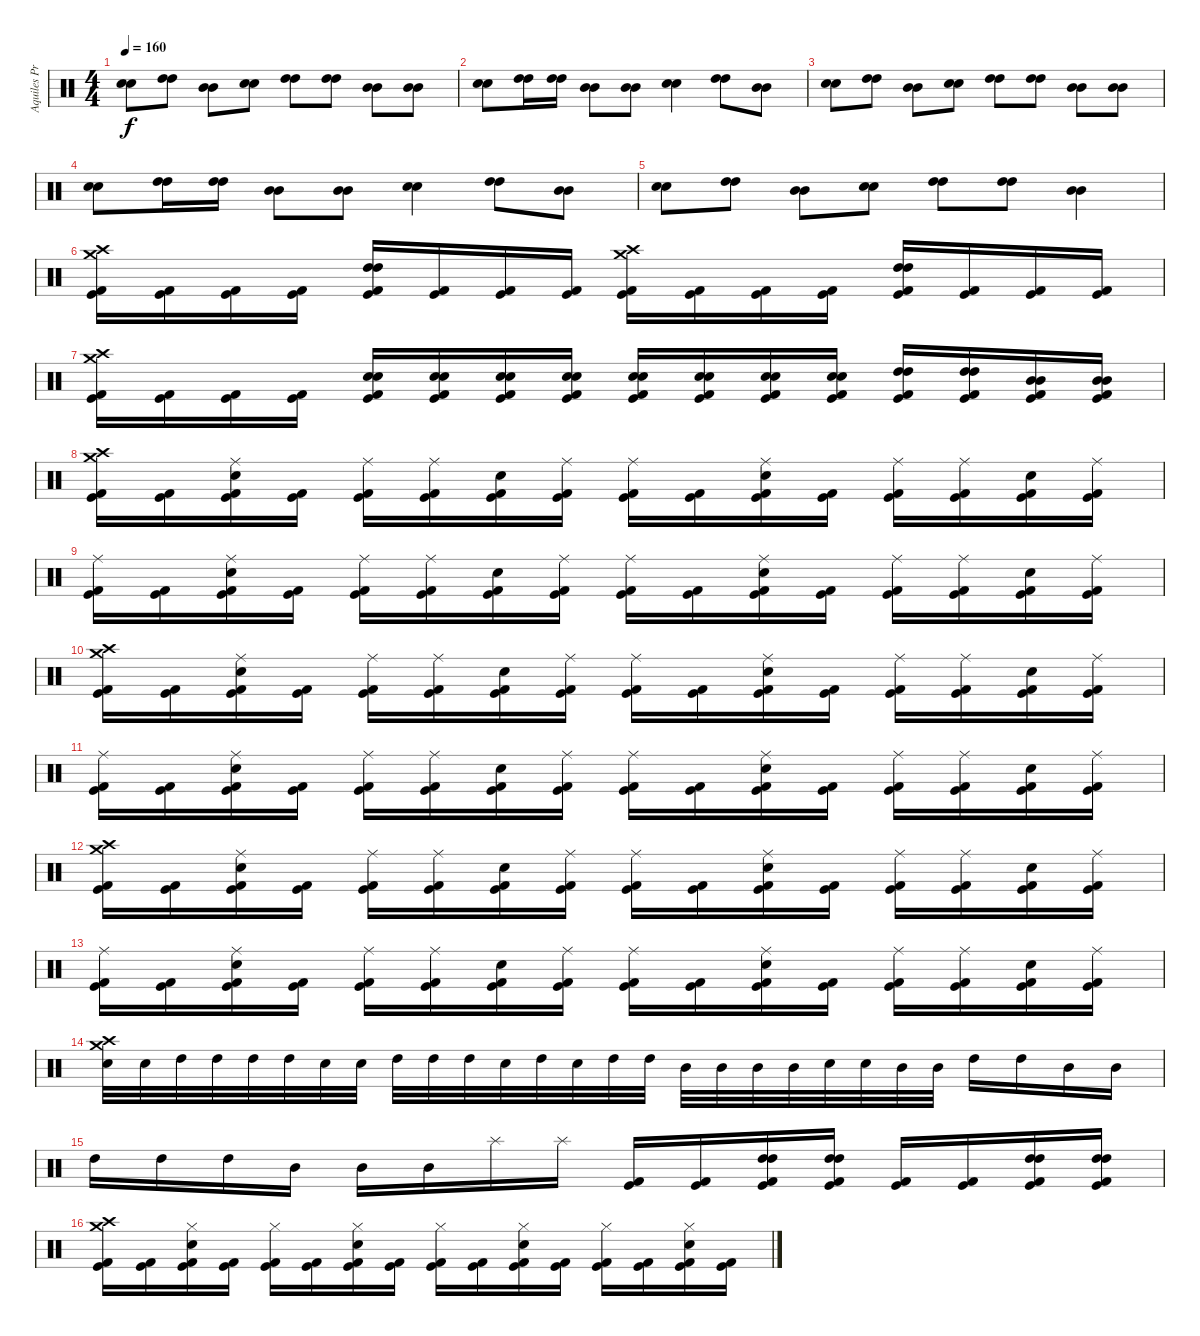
\track ("Aquiles Priester" "Aquiles Pr") {instrument percussion}
\staff {score}
\articulation defaults
\ts (4 4)
\tempo 160
\clef neutral
\ks c
("Electric Snare (hit)" "Electric Snare (hit)").8{dy f} ("High Tom (hit)" "High Tom (hit)").8 ("Mid Tom (hit)" "Mid Tom (hit)").8 ("Electric Snare (hit)" "Electric Snare (hit)").8 ("High Tom (hit)" "High Tom (hit)").8 ("High Tom (hit)" "High Tom (hit)").8 ("Mid Tom (hit)" "Mid Tom (hit)").8 ("Mid Tom (hit)" "Mid Tom (hit)").8 |
("Electric Snare (hit)" "Electric Snare (hit)").8 ("High Tom (hit)" "High Tom (hit)").16 ("High Tom (hit)" "High Tom (hit)").16 ("Mid Tom (hit)" "Mid Tom (hit)").8 ("Mid Tom (hit)" "Mid Tom (hit)").8 ("Electric Snare (hit)" "Electric Snare (hit)").4 ("High Tom (hit)" "High Tom (hit)").8 ("Mid Tom (hit)" "Mid Tom (hit)").8 |
("Electric Snare (hit)" "Electric Snare (hit)").8 ("High Tom (hit)" "High Tom (hit)").8 ("Mid Tom (hit)" "Mid Tom (hit)").8 ("Electric Snare (hit)" "Electric Snare (hit)").8 ("High Tom (hit)" "High Tom (hit)").8 ("High Tom (hit)" "High Tom (hit)").8 ("Mid Tom (hit)" "Mid Tom (hit)").8 ("Mid Tom (hit)" "Mid Tom (hit)").8 |
("Electric Snare (hit)" "Electric Snare (hit)").8 ("High Tom (hit)" "High Tom (hit)").16 ("High Tom (hit)" "High Tom (hit)").16 ("Mid Tom (hit)" "Mid Tom (hit)").8 ("Mid Tom (hit)" "Mid Tom (hit)").8 ("Electric Snare (hit)" "Electric Snare (hit)").4 ("High Tom (hit)" "High Tom (hit)").8 ("Mid Tom (hit)" "Mid Tom (hit)").8 |
("Electric Snare (hit)" "Electric Snare (hit)").8 ("High Tom (hit)" "High Tom (hit)").8 ("Mid Tom (hit)" "Mid Tom (hit)").8 ("Electric Snare (hit)" "Electric Snare (hit)").8 ("High Tom (hit)" "High Tom (hit)").8 ("High Tom (hit)" "High Tom (hit)").8 ("Mid Tom (hit)" "Mid Tom (hit)").4 |
("Crash medium (hit)" "Crash high (hit)" "Kick (hit) 2" "Kick (hit)").16 ("Kick (hit) 2" "Kick (hit)").16 ("Kick (hit) 2" "Kick (hit)").16 ("Kick (hit) 2" "Kick (hit)").16 ("High Tom (hit)" "High Tom (hit)" "Kick (hit) 2" "Kick (hit)").16 ("Kick (hit) 2" "Kick (hit)").16 ("Kick (hit) 2" "Kick (hit)").16 ("Kick (hit) 2" "Kick (hit)").16 ("Crash high (hit)" "Crash medium (hit)" "Kick (hit) 2" "Kick (hit)").16 ("Kick (hit) 2" "Kick (hit)").16 ("Kick (hit) 2" "Kick (hit)").16 ("Kick (hit) 2" "Kick (hit)").16 ("High Tom (hit)" "High Tom (hit)" "Kick (hit) 2" "Kick (hit)").16 ("Kick (hit) 2" "Kick (hit)").16 ("Kick (hit) 2" "Kick (hit)").16 ("Kick (hit) 2" "Kick (hit)").16 |
("Crash medium (hit)" "Crash high (hit)" "Kick (hit) 2" "Kick (hit)").16 ("Kick (hit) 2" "Kick (hit)").16 ("Kick (hit) 2" "Kick (hit)").16 ("Kick (hit) 2" "Kick (hit)").16 ("Electric Snare (hit)" "Electric Snare (hit)" "Kick (hit) 2" "Kick (hit)").16 ("Electric Snare (hit)" "Electric Snare (hit)" "Kick (hit) 2" "Kick (hit)").16 ("Electric Snare (hit)" "Electric Snare (hit)" "Kick (hit) 2" "Kick (hit)").16 ("Electric Snare (hit)" "Electric Snare (hit)" "Kick (hit) 2" "Kick (hit)").16 ("Electric Snare (hit)" "Electric Snare (hit)" "Kick (hit) 2" "Kick (hit)").16 ("Electric Snare (hit)" "Electric Snare (hit)" "Kick (hit) 2" "Kick (hit)").16 ("Electric Snare (hit)" "Electric Snare (hit)" "Kick (hit) 2" "Kick (hit)").16 ("Electric Snare (hit)" "Electric Snare (hit)" "Kick (hit) 2" "Kick (hit)").16 ("High Tom (hit)" "High Tom (hit)" "Kick (hit) 2" "Kick (hit)").16 ("High Tom (hit)" "High Tom (hit)" "Kick (hit) 2" "Kick (hit)").16 ("Mid Tom (hit)" "Mid Tom (hit)" "Kick (hit) 2" "Kick (hit)").16 ("Mid Tom (hit)" "Mid Tom (hit)" "Kick (hit) 2" "Kick (hit)").16 |
("Crash medium (hit)" "Crash high (hit)" "Kick (hit) 2" "Kick (hit)").16 ("Kick (hit) 2" "Kick (hit)").16 ("Ride (middle)" "Electric Snare (hit)" "Kick (hit) 2" "Kick (hit)").16 ("Kick (hit) 2" "Kick (hit)").16 ("Ride (middle)" "Kick (hit) 2" "Kick (hit)").16 ("Ride (middle)" "Kick (hit) 2" "Kick (hit)").16 ("Electric Snare (hit)" "Kick (hit) 2" "Kick (hit)").16 ("Ride (middle)" "Kick (hit) 2" "Kick (hit)").16 ("Ride (middle)" "Kick (hit) 2" "Kick (hit)").16 ("Kick (hit) 2" "Kick (hit)").16 ("Ride (middle)" "Electric Snare (hit)" "Kick (hit) 2" "Kick (hit)").16 ("Kick (hit) 2" "Kick (hit)").16 ("Ride (middle)" "Kick (hit) 2" "Kick (hit)").16 ("Ride (middle)" "Kick (hit) 2" "Kick (hit)").16 ("Electric Snare (hit)" "Kick (hit) 2" "Kick (hit)").16 ("Ride (middle)" "Kick (hit) 2" "Kick (hit)").16 |
("Ride (middle)" "Kick (hit) 2" "Kick (hit)").16 ("Kick (hit) 2" "Kick (hit)").16 ("Ride (middle)" "Electric Snare (hit)" "Kick (hit) 2" "Kick (hit)").16 ("Kick (hit) 2" "Kick (hit)").16 ("Ride (middle)" "Kick (hit) 2" "Kick (hit)").16 ("Ride (middle)" "Kick (hit) 2" "Kick (hit)").16 ("Electric Snare (hit)" "Kick (hit) 2" "Kick (hit)").16 ("Ride (middle)" "Kick (hit) 2" "Kick (hit)").16 ("Ride (middle)" "Kick (hit) 2" "Kick (hit)").16 ("Kick (hit) 2" "Kick (hit)").16 ("Ride (middle)" "Electric Snare (hit)" "Kick (hit) 2" "Kick (hit)").16 ("Kick (hit) 2" "Kick (hit)").16 ("Ride (middle)" "Kick (hit) 2" "Kick (hit)").16 ("Ride (middle)" "Kick (hit) 2" "Kick (hit)").16 ("Electric Snare (hit)" "Kick (hit) 2" "Kick (hit)").16 ("Ride (middle)" "Kick (hit) 2" "Kick (hit)").16 |
("Crash medium (hit)" "Crash high (hit)" "Kick (hit) 2" "Kick (hit)").16 ("Kick (hit) 2" "Kick (hit)").16 ("Ride (middle)" "Electric Snare (hit)" "Kick (hit) 2" "Kick (hit)").16 ("Kick (hit) 2" "Kick (hit)").16 ("Ride (middle)" "Kick (hit) 2" "Kick (hit)").16 ("Ride (middle)" "Kick (hit) 2" "Kick (hit)").16 ("Electric Snare (hit)" "Kick (hit) 2" "Kick (hit)").16 ("Ride (middle)" "Kick (hit) 2" "Kick (hit)").16 ("Ride (middle)" "Kick (hit) 2" "Kick (hit)").16 ("Kick (hit) 2" "Kick (hit)").16 ("Ride (middle)" "Electric Snare (hit)" "Kick (hit) 2" "Kick (hit)").16 ("Kick (hit) 2" "Kick (hit)").16 ("Ride (middle)" "Kick (hit) 2" "Kick (hit)").16 ("Ride (middle)" "Kick (hit) 2" "Kick (hit)").16 ("Electric Snare (hit)" "Kick (hit) 2" "Kick (hit)").16 ("Ride (middle)" "Kick (hit) 2" "Kick (hit)").16 |
("Ride (middle)" "Kick (hit) 2" "Kick (hit)").16 ("Kick (hit) 2" "Kick (hit)").16 ("Ride (middle)" "Electric Snare (hit)" "Kick (hit) 2" "Kick (hit)").16 ("Kick (hit) 2" "Kick (hit)").16 ("Ride (middle)" "Kick (hit) 2" "Kick (hit)").16 ("Ride (middle)" "Kick (hit) 2" "Kick (hit)").16 ("Electric Snare (hit)" "Kick (hit) 2" "Kick (hit)").16 ("Ride (middle)" "Kick (hit) 2" "Kick (hit)").16 ("Ride (middle)" "Kick (hit) 2" "Kick (hit)").16 ("Kick (hit) 2" "Kick (hit)").16 ("Ride (middle)" "Electric Snare (hit)" "Kick (hit) 2" "Kick (hit)").16 ("Kick (hit) 2" "Kick (hit)").16 ("Ride (middle)" "Kick (hit) 2" "Kick (hit)").16 ("Ride (middle)" "Kick (hit) 2" "Kick (hit)").16 ("Electric Snare (hit)" "Kick (hit) 2" "Kick (hit)").16 ("Ride (middle)" "Kick (hit) 2" "Kick (hit)").16 |
("Crash medium (hit)" "Crash high (hit)" "Kick (hit) 2" "Kick (hit)").16 ("Kick (hit) 2" "Kick (hit)").16 ("Ride (middle)" "Electric Snare (hit)" "Kick (hit) 2" "Kick (hit)").16 ("Kick (hit) 2" "Kick (hit)").16 ("Ride (middle)" "Kick (hit) 2" "Kick (hit)").16 ("Ride (middle)" "Kick (hit) 2" "Kick (hit)").16 ("Electric Snare (hit)" "Kick (hit) 2" "Kick (hit)").16 ("Ride (middle)" "Kick (hit) 2" "Kick (hit)").16 ("Ride (middle)" "Kick (hit) 2" "Kick (hit)").16 ("Kick (hit) 2" "Kick (hit)").16 ("Ride (middle)" "Electric Snare (hit)" "Kick (hit) 2" "Kick (hit)").16 ("Kick (hit) 2" "Kick (hit)").16 ("Ride (middle)" "Kick (hit) 2" "Kick (hit)").16 ("Ride (middle)" "Kick (hit) 2" "Kick (hit)").16 ("Electric Snare (hit)" "Kick (hit) 2" "Kick (hit)").16 ("Ride (middle)" "Kick (hit) 2" "Kick (hit)").16 |
("Ride (middle)" "Kick (hit) 2" "Kick (hit)").16 ("Kick (hit) 2" "Kick (hit)").16 ("Ride (middle)" "Electric Snare (hit)" "Kick (hit) 2" "Kick (hit)").16 ("Kick (hit) 2" "Kick (hit)").16 ("Ride (middle)" "Kick (hit) 2" "Kick (hit)").16 ("Ride (middle)" "Kick (hit) 2" "Kick (hit)").16 ("Electric Snare (hit)" "Kick (hit) 2" "Kick (hit)").16 ("Ride (middle)" "Kick (hit) 2" "Kick (hit)").16 ("Ride (middle)" "Kick (hit) 2" "Kick (hit)").16 ("Kick (hit) 2" "Kick (hit)").16 ("Ride (middle)" "Electric Snare (hit)" "Kick (hit) 2" "Kick (hit)").16 ("Kick (hit) 2" "Kick (hit)").16 ("Ride (middle)" "Kick (hit) 2" "Kick (hit)").16 ("Ride (middle)" "Kick (hit) 2" "Kick (hit)").16 ("Electric Snare (hit)" "Kick (hit) 2" "Kick (hit)").16 ("Ride (middle)" "Kick (hit) 2" "Kick (hit)").16 |
("Crash medium (hit)" "Crash high (hit)" "Electric Snare (hit)").32 "Electric Snare (hit)".32 "High Tom (hit)".32 "High Tom (hit)".32 "High Tom (hit)".32 "High Tom (hit)".32 "Electric Snare (hit)".32 "Electric Snare (hit)".32 "High Tom (hit)".32 "High Tom (hit)".32 "High Tom (hit)".32 "Electric Snare (hit)".32 "High Tom (hit)".32 "Electric Snare (hit)".32 "High Tom (hit)".32 "High Tom (hit)".32 "Mid Tom (hit)".32 "Mid Tom (hit)".32 "Mid Tom (hit)".32 "Mid Tom (hit)".32 "Electric Snare (hit)".32 "Electric Snare (hit)".32 "Mid Tom (hit)".32 "Mid Tom (hit)".32 "High Tom (hit)".16 "High Tom (hit)".16 "Mid Tom (hit)".16 "Mid Tom (hit)".16 |
"High Tom (hit)".16 "High Tom (hit)".16 "High Tom (hit)".16 "Mid Tom (hit)".16 "Mid Tom (hit)".16 "Mid Tom (hit)".16 "Splash (hit)".16 "Splash (hit)".16 ("Kick (hit) 2" "Kick (hit)").16 ("Kick (hit) 2" "Kick (hit)").16 ("High Tom (hit)" "High Tom (hit)" "Kick (hit) 2" "Kick (hit)").16 ("High Tom (hit)" "High Tom (hit)" "Kick (hit) 2" "Kick (hit)").16 ("Kick (hit) 2" "Kick (hit)").16 ("Kick (hit) 2" "Kick (hit)").16 ("High Tom (hit)" "High Tom (hit)" "Kick (hit) 2" "Kick (hit)").16 ("High Tom (hit)" "High Tom (hit)" "Kick (hit) 2" "Kick (hit)").16 |
("Crash medium (hit)" "Crash high (hit)" "Kick (hit) 2" "Kick (hit)").16 ("Kick (hit) 2" "Kick (hit)").16 ("Hi-Hat (closed)" "Electric Snare (hit)" "Kick (hit) 2" "Kick (hit)").16 ("Kick (hit) 2" "Kick (hit)").16 ("Hi-Hat (closed)" "Kick (hit) 2" "Kick (hit)").16 ("Kick (hit) 2" "Kick (hit)").16 ("Hi-Hat (closed)" "Electric Snare (hit)" "Kick (hit) 2" "Kick (hit)").16 ("Kick (hit) 2" "Kick (hit)").16 ("Hi-Hat (closed)" "Kick (hit) 2" "Kick (hit)").16 ("Kick (hit) 2" "Kick (hit)").16 ("Hi-Hat (closed)" "Electric Snare (hit)" "Kick (hit) 2" "Kick (hit)").16 ("Kick (hit) 2" "Kick (hit)").16 ("Hi-Hat (closed)" "Kick (hit) 2" "Kick (hit)").16 ("Kick (hit) 2" "Kick (hit)").16 ("Hi-Hat (closed)" "Electric Snare (hit)" "Kick (hit) 2" "Kick (hit)").16 ("Kick (hit) 2" "Kick (hit)").16
